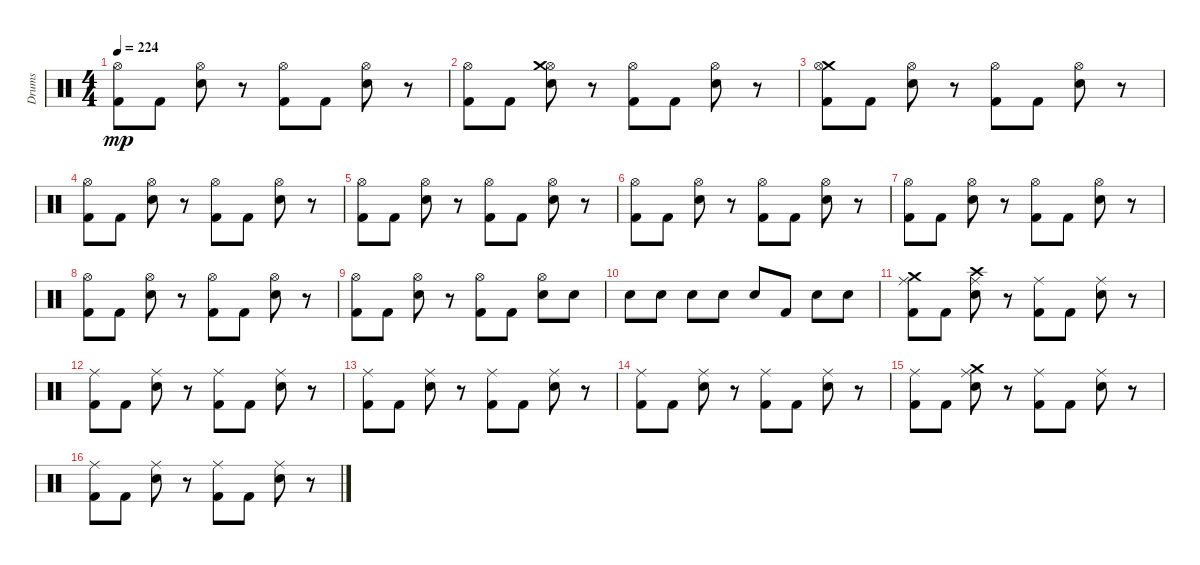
\track ("Drums" "Drums") {instrument percussion}
\staff {score}
\articulation defaults
\ts (4 4)
\tempo 224
\clef neutral
\ks c
("Hi-Hat (open)" "Kick (hit) 2").8{dy mp} "Kick (hit) 2".8 ("Electric Snare (hit)" "Hi-Hat (open)").8 r.8 ("Hi-Hat (open)" "Kick (hit) 2").8 "Kick (hit) 2".8 ("Electric Snare (hit)" "Hi-Hat (open)").8 r.8 |
("Kick (hit) 2" "Hi-Hat (open)").8 "Kick (hit) 2".8 ("Hi-Hat (open)" "Electric Snare (hit)" "Crash medium (hit)").8 r.8 ("Hi-Hat (open)" "Kick (hit) 2").8 "Kick (hit) 2".8 ("Electric Snare (hit)" "Hi-Hat (open)").8 r.8 |
("Crash medium (hit)" "Hi-Hat (open)" "Kick (hit) 2").8 "Kick (hit) 2".8 ("Hi-Hat (open)" "Electric Snare (hit)").8 r.8 ("Kick (hit) 2" "Hi-Hat (open)").8 "Kick (hit) 2".8 ("Hi-Hat (open)" "Electric Snare (hit)").8 r.8 |
("Hi-Hat (open)" "Kick (hit) 2").8 "Kick (hit) 2".8 ("Electric Snare (hit)" "Hi-Hat (open)").8 r.8 ("Kick (hit) 2" "Hi-Hat (open)").8 "Kick (hit) 2".8 ("Hi-Hat (open)" "Electric Snare (hit)").8 r.8 |
("Kick (hit) 2" "Hi-Hat (open)").8 "Kick (hit) 2".8 ("Electric Snare (hit)" "Hi-Hat (open)").8 r.8 ("Kick (hit) 2" "Hi-Hat (open)").8 "Kick (hit) 2".8 ("Hi-Hat (open)" "Electric Snare (hit)").8 r.8 |
("Hi-Hat (open)" "Kick (hit) 2").8 "Kick (hit) 2".8 ("Hi-Hat (open)" "Electric Snare (hit)").8 r.8 ("Kick (hit) 2" "Hi-Hat (open)").8 "Kick (hit) 2".8 ("Hi-Hat (open)" "Electric Snare (hit)").8 r.8 |
("Hi-Hat (open)" "Kick (hit) 2").8 "Kick (hit) 2".8 ("Hi-Hat (open)" "Electric Snare (hit)").8 r.8 ("Kick (hit) 2" "Hi-Hat (open)").8 "Kick (hit) 2".8 ("Hi-Hat (open)" "Electric Snare (hit)").8 r.8 |
("Hi-Hat (open)" "Kick (hit) 2").8 "Kick (hit) 2".8 ("Electric Snare (hit)" "Hi-Hat (open)").8 r.8 ("Kick (hit) 2" "Hi-Hat (open)").8 "Kick (hit) 2".8 ("Hi-Hat (open)" "Electric Snare (hit)").8 r.8 |
("Hi-Hat (open)" "Kick (hit) 2").8 "Kick (hit) 2".8 ("Hi-Hat (open)" "Electric Snare (hit)").8 r.8 ("Hi-Hat (open)" "Kick (hit) 2").8 "Kick (hit) 2".8 ("Hi-Hat (open)" "Electric Snare (hit)").8 "Electric Snare (hit)".8 |
"Electric Snare (hit)".8 "Electric Snare (hit)".8 "Electric Snare (hit)".8 "Electric Snare (hit)".8 "Electric Snare (hit)".8 "Kick (hit) 2".8 "Electric Snare (hit)".8 "Electric Snare (hit)".8 |
("Crash medium (hit)" "Kick (hit) 2" "Ride (middle)").8 "Kick (hit) 2".8 ("Ride (middle)" "Electric Snare (hit)" "Crash high (hit)").8 r.8 ("Kick (hit) 2" "Ride (middle)").8 "Kick (hit) 2".8 ("Electric Snare (hit)" "Ride (middle)").8 r.8 |
("Kick (hit) 2" "Ride (middle)").8 "Kick (hit) 2".8 ("Ride (middle)" "Electric Snare (hit)").8 r.8 ("Ride (middle)" "Kick (hit) 2").8 "Kick (hit) 2".8 ("Electric Snare (hit)" "Ride (middle)").8 r.8 |
("Ride (middle)" "Kick (hit) 2").8 "Kick (hit) 2".8 ("Electric Snare (hit)" "Ride (middle)").8 r.8 ("Kick (hit) 2" "Ride (middle)").8 "Kick (hit) 2".8 ("Ride (middle)" "Electric Snare (hit)").8 r.8 |
("Kick (hit) 2" "Ride (middle)").8 "Kick (hit) 2".8 ("Ride (middle)" "Electric Snare (hit)").8 r.8 ("Ride (middle)" "Kick (hit) 2").8 "Kick (hit) 2".8 ("Ride (middle)" "Electric Snare (hit)").8 r.8 |
("Kick (hit) 2" "Ride (middle)").8 "Kick (hit) 2".8 ("Ride (middle)" "Crash medium (hit)" "Electric Snare (hit)").8 r.8 ("Kick (hit) 2" "Ride (middle)").8 "Kick (hit) 2".8 ("Ride (middle)" "Electric Snare (hit)").8 r.8 |
("Kick (hit) 2" "Ride (middle)").8 "Kick (hit) 2".8 ("Electric Snare (hit)" "Ride (middle)").8 r.8 ("Kick (hit) 2" "Ride (middle)").8 "Kick (hit) 2".8 ("Electric Snare (hit)" "Ride (middle)").8 r.8
